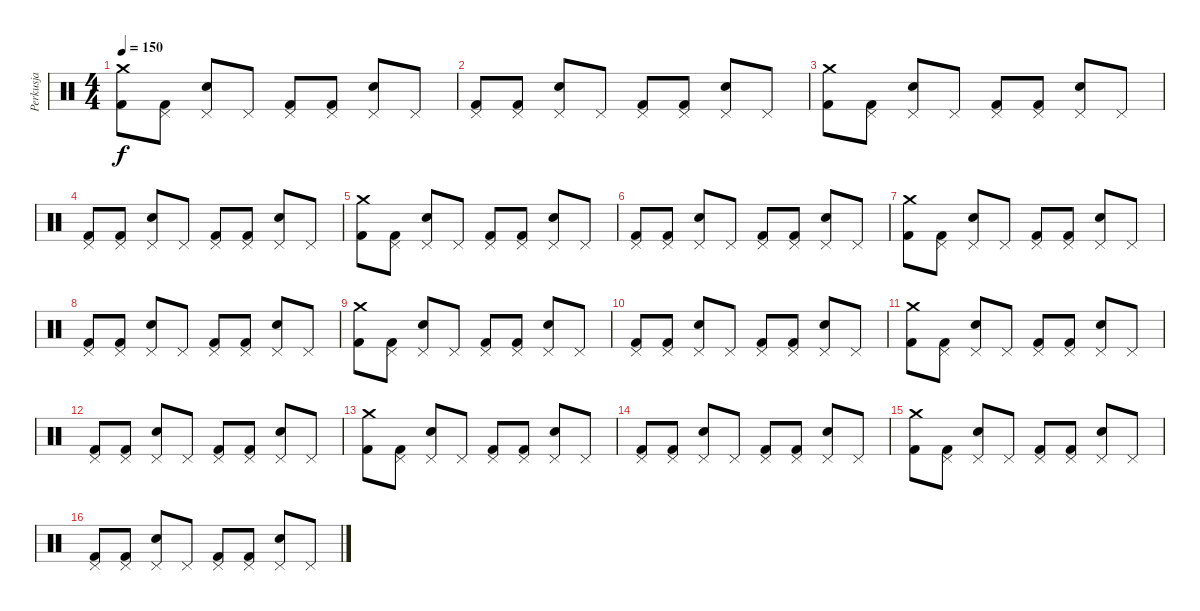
\track ("Perkusja" "Perkusja") {instrument percussion}
\staff {score}
\articulation defaults
\ts (4 4)
\tempo 150
\clef neutral
\ks c
("Crash medium (hit)" "Kick (hit) 2").8{dy f} ("Pedal Hi-Hat (hit)" "Kick (hit) 2").8 ("Pedal Hi-Hat (hit)" "Snare (hit) 2").8 "Pedal Hi-Hat (hit)".8 ("Pedal Hi-Hat (hit)" "Kick (hit) 2").8 ("Pedal Hi-Hat (hit)" "Kick (hit) 2").8 ("Pedal Hi-Hat (hit)" "Snare (hit) 2").8 "Pedal Hi-Hat (hit)".8 |
("Pedal Hi-Hat (hit)" "Kick (hit) 2").8 ("Pedal Hi-Hat (hit)" "Kick (hit) 2").8 ("Pedal Hi-Hat (hit)" "Snare (hit) 2").8 "Pedal Hi-Hat (hit)".8 ("Pedal Hi-Hat (hit)" "Kick (hit) 2").8 ("Pedal Hi-Hat (hit)" "Kick (hit) 2").8 ("Pedal Hi-Hat (hit)" "Snare (hit) 2").8 "Pedal Hi-Hat (hit)".8 |
("Crash medium (hit)" "Kick (hit) 2").8 ("Pedal Hi-Hat (hit)" "Kick (hit) 2").8 ("Pedal Hi-Hat (hit)" "Snare (hit) 2").8 "Pedal Hi-Hat (hit)".8 ("Pedal Hi-Hat (hit)" "Kick (hit) 2").8 ("Pedal Hi-Hat (hit)" "Kick (hit) 2").8 ("Pedal Hi-Hat (hit)" "Snare (hit) 2").8 "Pedal Hi-Hat (hit)".8 |
("Pedal Hi-Hat (hit)" "Kick (hit) 2").8 ("Pedal Hi-Hat (hit)" "Kick (hit) 2").8 ("Pedal Hi-Hat (hit)" "Snare (hit) 2").8 "Pedal Hi-Hat (hit)".8 ("Pedal Hi-Hat (hit)" "Kick (hit) 2").8 ("Pedal Hi-Hat (hit)" "Kick (hit) 2").8 ("Pedal Hi-Hat (hit)" "Snare (hit) 2").8 "Pedal Hi-Hat (hit)".8 |
("Crash medium (hit)" "Kick (hit) 2").8 ("Pedal Hi-Hat (hit)" "Kick (hit) 2").8 ("Pedal Hi-Hat (hit)" "Snare (hit) 2").8 "Pedal Hi-Hat (hit)".8 ("Pedal Hi-Hat (hit)" "Kick (hit) 2").8 ("Pedal Hi-Hat (hit)" "Kick (hit) 2").8 ("Pedal Hi-Hat (hit)" "Snare (hit) 2").8 "Pedal Hi-Hat (hit)".8 |
("Pedal Hi-Hat (hit)" "Kick (hit) 2").8 ("Pedal Hi-Hat (hit)" "Kick (hit) 2").8 ("Pedal Hi-Hat (hit)" "Snare (hit) 2").8 "Pedal Hi-Hat (hit)".8 ("Pedal Hi-Hat (hit)" "Kick (hit) 2").8 ("Pedal Hi-Hat (hit)" "Kick (hit) 2").8 ("Pedal Hi-Hat (hit)" "Snare (hit) 2").8 "Pedal Hi-Hat (hit)".8 |
("Crash medium (hit)" "Kick (hit) 2").8 ("Pedal Hi-Hat (hit)" "Kick (hit) 2").8 ("Pedal Hi-Hat (hit)" "Snare (hit) 2").8 "Pedal Hi-Hat (hit)".8 ("Pedal Hi-Hat (hit)" "Kick (hit) 2").8 ("Pedal Hi-Hat (hit)" "Kick (hit) 2").8 ("Pedal Hi-Hat (hit)" "Snare (hit) 2").8 "Pedal Hi-Hat (hit)".8 |
("Pedal Hi-Hat (hit)" "Kick (hit) 2").8 ("Pedal Hi-Hat (hit)" "Kick (hit) 2").8 ("Pedal Hi-Hat (hit)" "Snare (hit) 2").8 "Pedal Hi-Hat (hit)".8 ("Pedal Hi-Hat (hit)" "Kick (hit) 2").8 ("Pedal Hi-Hat (hit)" "Kick (hit) 2").8 ("Pedal Hi-Hat (hit)" "Snare (hit) 2").8 "Pedal Hi-Hat (hit)".8 |
("Crash medium (hit)" "Kick (hit) 2").8 ("Pedal Hi-Hat (hit)" "Kick (hit) 2").8 ("Pedal Hi-Hat (hit)" "Snare (hit) 2").8 "Pedal Hi-Hat (hit)".8 ("Pedal Hi-Hat (hit)" "Kick (hit) 2").8 ("Pedal Hi-Hat (hit)" "Kick (hit) 2").8 ("Pedal Hi-Hat (hit)" "Snare (hit) 2").8 "Pedal Hi-Hat (hit)".8 |
("Pedal Hi-Hat (hit)" "Kick (hit) 2").8 ("Pedal Hi-Hat (hit)" "Kick (hit) 2").8 ("Pedal Hi-Hat (hit)" "Snare (hit) 2").8 "Pedal Hi-Hat (hit)".8 ("Pedal Hi-Hat (hit)" "Kick (hit) 2").8 ("Pedal Hi-Hat (hit)" "Kick (hit) 2").8 ("Pedal Hi-Hat (hit)" "Snare (hit) 2").8 "Pedal Hi-Hat (hit)".8 |
("Crash medium (hit)" "Kick (hit) 2").8 ("Pedal Hi-Hat (hit)" "Kick (hit) 2").8 ("Pedal Hi-Hat (hit)" "Snare (hit) 2").8 "Pedal Hi-Hat (hit)".8 ("Pedal Hi-Hat (hit)" "Kick (hit) 2").8 ("Pedal Hi-Hat (hit)" "Kick (hit) 2").8 ("Pedal Hi-Hat (hit)" "Snare (hit) 2").8 "Pedal Hi-Hat (hit)".8 |
("Pedal Hi-Hat (hit)" "Kick (hit) 2").8 ("Pedal Hi-Hat (hit)" "Kick (hit) 2").8 ("Pedal Hi-Hat (hit)" "Snare (hit) 2").8 "Pedal Hi-Hat (hit)".8 ("Pedal Hi-Hat (hit)" "Kick (hit) 2").8 ("Pedal Hi-Hat (hit)" "Kick (hit) 2").8 ("Pedal Hi-Hat (hit)" "Snare (hit) 2").8 "Pedal Hi-Hat (hit)".8 |
("Crash medium (hit)" "Kick (hit) 2").8 ("Pedal Hi-Hat (hit)" "Kick (hit) 2").8 ("Pedal Hi-Hat (hit)" "Snare (hit) 2").8 "Pedal Hi-Hat (hit)".8 ("Pedal Hi-Hat (hit)" "Kick (hit) 2").8 ("Pedal Hi-Hat (hit)" "Kick (hit) 2").8 ("Pedal Hi-Hat (hit)" "Snare (hit) 2").8 "Pedal Hi-Hat (hit)".8 |
("Pedal Hi-Hat (hit)" "Kick (hit) 2").8 ("Pedal Hi-Hat (hit)" "Kick (hit) 2").8 ("Pedal Hi-Hat (hit)" "Snare (hit) 2").8 "Pedal Hi-Hat (hit)".8 ("Pedal Hi-Hat (hit)" "Kick (hit) 2").8 ("Pedal Hi-Hat (hit)" "Kick (hit) 2").8 ("Pedal Hi-Hat (hit)" "Snare (hit) 2").8 "Pedal Hi-Hat (hit)".8 |
("Crash medium (hit)" "Kick (hit) 2").8 ("Pedal Hi-Hat (hit)" "Kick (hit) 2").8 ("Pedal Hi-Hat (hit)" "Snare (hit) 2").8 "Pedal Hi-Hat (hit)".8 ("Pedal Hi-Hat (hit)" "Kick (hit) 2").8 ("Pedal Hi-Hat (hit)" "Kick (hit) 2").8 ("Pedal Hi-Hat (hit)" "Snare (hit) 2").8 "Pedal Hi-Hat (hit)".8 |
("Pedal Hi-Hat (hit)" "Kick (hit) 2").8 ("Pedal Hi-Hat (hit)" "Kick (hit) 2").8 ("Pedal Hi-Hat (hit)" "Snare (hit) 2").8 "Pedal Hi-Hat (hit)".8 ("Pedal Hi-Hat (hit)" "Kick (hit) 2").8 ("Pedal Hi-Hat (hit)" "Kick (hit) 2").8 ("Pedal Hi-Hat (hit)" "Snare (hit) 2").8 "Pedal Hi-Hat (hit)".8
